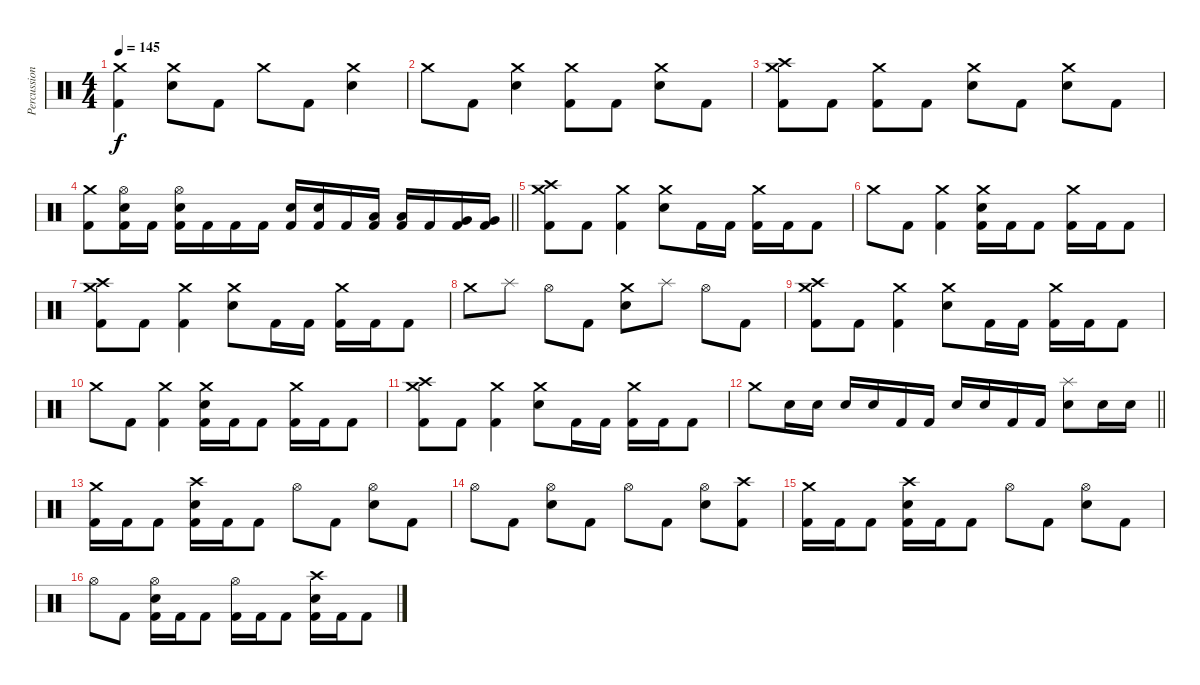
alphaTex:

\track ("Percussion" "Percussion") {instrument percussion}
\staff {score}
\articulation defaults
\ts (4 4)
\tempo 145
\clef neutral
\ks c
("Crash medium (hit)" "Kick (hit) 2").4{dy f} ("Crash medium (hit)" "Electric Snare (hit)").8 "Kick (hit) 2".8 "Crash medium (hit)".8 "Kick (hit) 2".8 ("Crash medium (hit)" "Electric Snare (hit)").4 |
"Crash medium (hit)".8 "Kick (hit) 2".8 ("Crash medium (hit)" "Electric Snare (hit)").4 ("Crash medium (hit)" "Kick (hit) 2").8 "Kick (hit) 2".8 ("Crash medium (hit)" "Electric Snare (hit)").8 "Kick (hit) 2".8 |
("Crash medium (hit)" "Crash high (hit)" "Kick (hit) 2").8 "Kick (hit) 2".8 ("Crash medium (hit)" "Kick (hit) 2").8 "Kick (hit) 2".8 ("Crash medium (hit)" "Electric Snare (hit)").8 "Kick (hit) 2".8 ("Crash medium (hit)" "Electric Snare (hit)").8 "Kick (hit) 2".8 |
\barLineRight lightlight
("Crash medium (hit)" "Kick (hit) 2").8 ("Hi-Hat (open)" "Electric Snare (hit)" "Kick (hit) 2").16 "Kick (hit) 2".16 ("Hi-Hat (open)" "Electric Snare (hit)" "Kick (hit) 2").16 "Kick (hit) 2".16 "Kick (hit) 2".16 "Kick (hit) 2".16 ("Electric Snare (hit)" "Kick (hit) 2").16 ("Electric Snare (hit)" "Kick (hit) 2").16 "Kick (hit) 2".16 ("Low Tom (hit)" "Kick (hit) 2").16 ("Low Tom (hit)" "Kick (hit) 2").16 "Kick (hit) 2".16 ("Very Low Tom (hit)" "Kick (hit) 2").16 ("Very Low Tom (hit)" "Kick (hit) 2").16 |
\section ("" "")
("Crash medium (hit)" "Crash high (hit)" "Kick (hit) 2").8 "Kick (hit) 2".8 ("Crash medium (hit)" "Kick (hit) 2").4 ("Crash medium (hit)" "Electric Snare (hit)").8 "Kick (hit) 2".16 "Kick (hit) 2".16 ("Crash medium (hit)" "Kick (hit) 2").16 "Kick (hit) 2".16 "Kick (hit) 2".8 |
"Crash medium (hit)".8 "Kick (hit) 2".8 ("Crash medium (hit)" "Kick (hit) 2").4 ("Crash medium (hit)" "Electric Snare (hit)" "Kick (hit) 2").16 "Kick (hit) 2".16 "Kick (hit) 2".8 ("Crash medium (hit)" "Kick (hit) 2").16 "Kick (hit) 2".16 "Kick (hit) 2".8 |
("Crash medium (hit)" "Crash high (hit)" "Kick (hit) 2").8 "Kick (hit) 2".8 ("Crash medium (hit)" "Kick (hit) 2").4 ("Crash medium (hit)" "Electric Snare (hit)").8 "Kick (hit) 2".16 "Kick (hit) 2".16 ("Crash medium (hit)" "Kick (hit) 2").16 "Kick (hit) 2".16 "Kick (hit) 2".8 |
"Crash medium (hit)".8 "Splash (hit)".8 "Hi-Hat (open)".8 "Kick (hit) 2".8 ("Crash medium (hit)" "Electric Snare (hit)").8 "Splash (hit)".8 "Hi-Hat (open)".8 "Kick (hit) 2".8 |
("Crash medium (hit)" "Crash high (hit)" "Kick (hit) 2").8 "Kick (hit) 2".8 ("Crash medium (hit)" "Kick (hit) 2").4 ("Crash medium (hit)" "Electric Snare (hit)").8 "Kick (hit) 2".16 "Kick (hit) 2".16 ("Crash medium (hit)" "Kick (hit) 2").16 "Kick (hit) 2".16 "Kick (hit) 2".8 |
"Crash medium (hit)".8 "Kick (hit) 2".8 ("Crash medium (hit)" "Kick (hit) 2").4 ("Crash medium (hit)" "Electric Snare (hit)" "Kick (hit) 2").16 "Kick (hit) 2".16 "Kick (hit) 2".8 ("Crash medium (hit)" "Kick (hit) 2").16 "Kick (hit) 2".16 "Kick (hit) 2".8 |
("Crash medium (hit)" "Crash high (hit)" "Kick (hit) 2").8 "Kick (hit) 2".8 ("Crash medium (hit)" "Kick (hit) 2").4 ("Crash medium (hit)" "Electric Snare (hit)").8 "Kick (hit) 2".16 "Kick (hit) 2".16 ("Crash medium (hit)" "Kick (hit) 2").16 "Kick (hit) 2".16 "Kick (hit) 2".8 |
\barLineRight lightlight "Crash medium (hit)".8 "Electric Snare (hit)".16 "Electric Snare (hit)".16 "Electric Snare (hit)".16 "Electric Snare (hit)".16 "Kick (hit) 2".16 "Kick (hit) 2".16 "Electric Snare (hit)".16 "Electric Snare (hit)".16 "Kick (hit) 2".16 "Kick (hit) 2".16
("Splash (hit)" "Electric Snare (hit)").8 "Electric Snare (hit)".16 "Electric Snare (hit)".16 |
\section ("" "")
("Crash medium (hit)" "Kick (hit) 2").16 "Kick (hit) 2".16 "Kick (hit) 2".8 ("Crash high (hit)" "Electric Snare (hit)" "Kick (hit) 2").16 "Kick (hit) 2".16 "Kick (hit) 2".8 "Hi-Hat (open)".8 "Kick (hit) 2".8 ("Hi-Hat (open)" "Electric Snare (hit)").8 "Kick (hit) 2".8 |
"Hi-Hat (open)".8 "Kick (hit) 2".8 ("Hi-Hat (open)" "Electric Snare (hit)").8 "Kick (hit) 2".8 "Hi-Hat (open)".8 "Kick (hit) 2".8 ("Hi-Hat (open)" "Electric Snare (hit)").8 ("Crash high (hit)" "Kick (hit) 2").8 |
("Crash medium (hit)" "Kick (hit) 2").16 "Kick (hit) 2".16 "Kick (hit) 2".8 ("Crash high (hit)" "Electric Snare (hit)" "Kick (hit) 2").16 "Kick (hit) 2".16 "Kick (hit) 2".8 "Hi-Hat (open)".8 "Kick (hit) 2".8 ("Hi-Hat (open)" "Electric Snare (hit)").8 "Kick (hit) 2".8 |
"Hi-Hat (open)".8 "Kick (hit) 2".8 ("Hi-Hat (open)" "Electric Snare (hit)" "Kick (hit) 2").16 "Kick (hit) 2".16 "Kick (hit) 2".8 ("Hi-Hat (open)" "Kick (hit) 2").16 "Kick (hit) 2".16 "Kick (hit) 2".8 ("Crash high (hit)" "Electric Snare (hit)" "Kick (hit) 2").16 "Kick (hit) 2".16 "Kick (hit) 2".8
